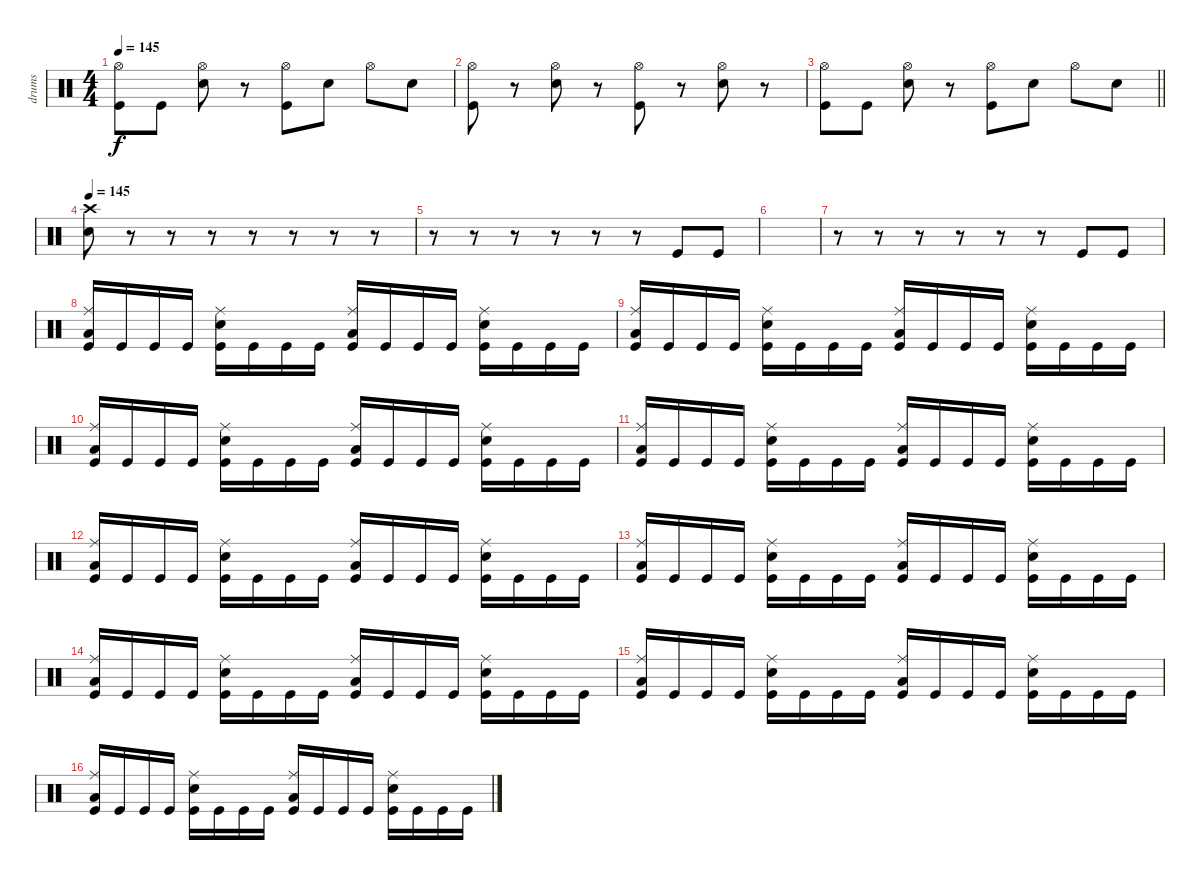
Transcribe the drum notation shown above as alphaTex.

\track ("drums" "drums") {instrument percussion}
\staff {score}
\articulation defaults
\ts (4 4)
\tempo 145
\clef neutral
\ks c
("Hi-Hat (open)" "Kick (hit)").8{dy f} "Kick (hit)".8 ("Hi-Hat (open)" "Snare (hit) 2").8 r.8 ("Hi-Hat (open)" "Kick (hit)").8 "Snare (hit) 2".8 "Hi-Hat (open)".8 "Snare (hit) 2".8 |
("Hi-Hat (open)" "Kick (hit)").8 r.8 ("Hi-Hat (open)" "Snare (hit) 2").8 r.8 ("Hi-Hat (open)" "Kick (hit)").8 r.8 ("Hi-Hat (open)" "Snare (hit) 2").8 r.8 |
\barLineRight lightlight
("Hi-Hat (open)" "Kick (hit)").8 "Kick (hit)".8 ("Hi-Hat (open)" "Snare (hit) 2").8 r.8 ("Hi-Hat (open)" "Kick (hit)").8 "Snare (hit) 2".8 "Hi-Hat (open)".8 "Snare (hit) 2".8 |
\section ("" "")
\tempo 145
("Crash high (hit)" "Snare (hit) 2").8 r.8 r.8 r.8 r.8 r.8 r.8 r.8 |
r.8 r.8 r.8 r.8 r.8 r.8 "Kick (hit)".8 "Kick (hit)".8 |
|
r.8 r.8 r.8 r.8 r.8 r.8 "Kick (hit)".8 "Kick (hit)".8 |
("Ride (middle)" "Low Tom (hit)" "Kick (hit)").16 "Kick (hit)".16 "Kick (hit)".16 "Kick (hit)".16 ("Ride (middle)" "Snare (hit) 2" "Kick (hit)").16 "Kick (hit)".16 "Kick (hit)".16 "Kick (hit)".16 ("Ride (middle)" "Low Tom (hit)" "Kick (hit)").16 "Kick (hit)".16 "Kick (hit)".16 "Kick (hit)".16 ("Ride (middle)" "Snare (hit) 2" "Kick (hit)").16 "Kick (hit)".16 "Kick (hit)".16 "Kick (hit)".16 |
("Ride (middle)" "Low Tom (hit)" "Kick (hit)").16 "Kick (hit)".16 "Kick (hit)".16 "Kick (hit)".16 ("Ride (middle)" "Snare (hit) 2" "Kick (hit)").16 "Kick (hit)".16 "Kick (hit)".16 "Kick (hit)".16 ("Ride (middle)" "Low Tom (hit)" "Kick (hit)").16 "Kick (hit)".16 "Kick (hit)".16 "Kick (hit)".16 ("Ride (middle)" "Snare (hit) 2" "Kick (hit)").16 "Kick (hit)".16 "Kick (hit)".16 "Kick (hit)".16 |
("Ride (middle)" "Low Tom (hit)" "Kick (hit)").16 "Kick (hit)".16 "Kick (hit)".16 "Kick (hit)".16 ("Ride (middle)" "Snare (hit) 2" "Kick (hit)").16 "Kick (hit)".16 "Kick (hit)".16 "Kick (hit)".16 ("Ride (middle)" "Low Tom (hit)" "Kick (hit)").16 "Kick (hit)".16 "Kick (hit)".16 "Kick (hit)".16 ("Ride (middle)" "Snare (hit) 2" "Kick (hit)").16 "Kick (hit)".16 "Kick (hit)".16 "Kick (hit)".16 |
("Ride (middle)" "Low Tom (hit)" "Kick (hit)").16 "Kick (hit)".16 "Kick (hit)".16 "Kick (hit)".16 ("Ride (middle)" "Snare (hit) 2" "Kick (hit)").16 "Kick (hit)".16 "Kick (hit)".16 "Kick (hit)".16 ("Ride (middle)" "Low Tom (hit)" "Kick (hit)").16 "Kick (hit)".16 "Kick (hit)".16 "Kick (hit)".16 ("Ride (middle)" "Snare (hit) 2" "Kick (hit)").16 "Kick (hit)".16 "Kick (hit)".16 "Kick (hit)".16 |
("Ride (middle)" "Low Tom (hit)" "Kick (hit)").16 "Kick (hit)".16 "Kick (hit)".16 "Kick (hit)".16 ("Ride (middle)" "Snare (hit) 2" "Kick (hit)").16 "Kick (hit)".16 "Kick (hit)".16 "Kick (hit)".16 ("Ride (middle)" "Low Tom (hit)" "Kick (hit)").16 "Kick (hit)".16 "Kick (hit)".16 "Kick (hit)".16 ("Ride (middle)" "Snare (hit) 2" "Kick (hit)").16 "Kick (hit)".16 "Kick (hit)".16 "Kick (hit)".16 |
("Ride (middle)" "Low Tom (hit)" "Kick (hit)").16 "Kick (hit)".16 "Kick (hit)".16 "Kick (hit)".16 ("Ride (middle)" "Snare (hit) 2" "Kick (hit)").16 "Kick (hit)".16 "Kick (hit)".16 "Kick (hit)".16 ("Ride (middle)" "Low Tom (hit)" "Kick (hit)").16 "Kick (hit)".16 "Kick (hit)".16 "Kick (hit)".16 ("Ride (middle)" "Snare (hit) 2" "Kick (hit)").16 "Kick (hit)".16 "Kick (hit)".16 "Kick (hit)".16 |
("Ride (middle)" "Low Tom (hit)" "Kick (hit)").16 "Kick (hit)".16 "Kick (hit)".16 "Kick (hit)".16 ("Ride (middle)" "Snare (hit) 2" "Kick (hit)").16 "Kick (hit)".16 "Kick (hit)".16 "Kick (hit)".16 ("Ride (middle)" "Low Tom (hit)" "Kick (hit)").16 "Kick (hit)".16 "Kick (hit)".16 "Kick (hit)".16 ("Ride (middle)" "Snare (hit) 2" "Kick (hit)").16 "Kick (hit)".16 "Kick (hit)".16 "Kick (hit)".16 |
("Ride (middle)" "Low Tom (hit)" "Kick (hit)").16 "Kick (hit)".16 "Kick (hit)".16 "Kick (hit)".16 ("Ride (middle)" "Snare (hit) 2" "Kick (hit)").16 "Kick (hit)".16 "Kick (hit)".16 "Kick (hit)".16 ("Ride (middle)" "Low Tom (hit)" "Kick (hit)").16 "Kick (hit)".16 "Kick (hit)".16 "Kick (hit)".16 ("Ride (middle)" "Snare (hit) 2" "Kick (hit)").16 "Kick (hit)".16 "Kick (hit)".16 "Kick (hit)".16 |
("Ride (middle)" "Low Tom (hit)" "Kick (hit)").16 "Kick (hit)".16 "Kick (hit)".16 "Kick (hit)".16 ("Ride (middle)" "Snare (hit) 2" "Kick (hit)").16 "Kick (hit)".16 "Kick (hit)".16 "Kick (hit)".16 ("Ride (middle)" "Low Tom (hit)" "Kick (hit)").16 "Kick (hit)".16 "Kick (hit)".16 "Kick (hit)".16 ("Ride (middle)" "Snare (hit) 2" "Kick (hit)").16 "Kick (hit)".16 "Kick (hit)".16 "Kick (hit)".16
